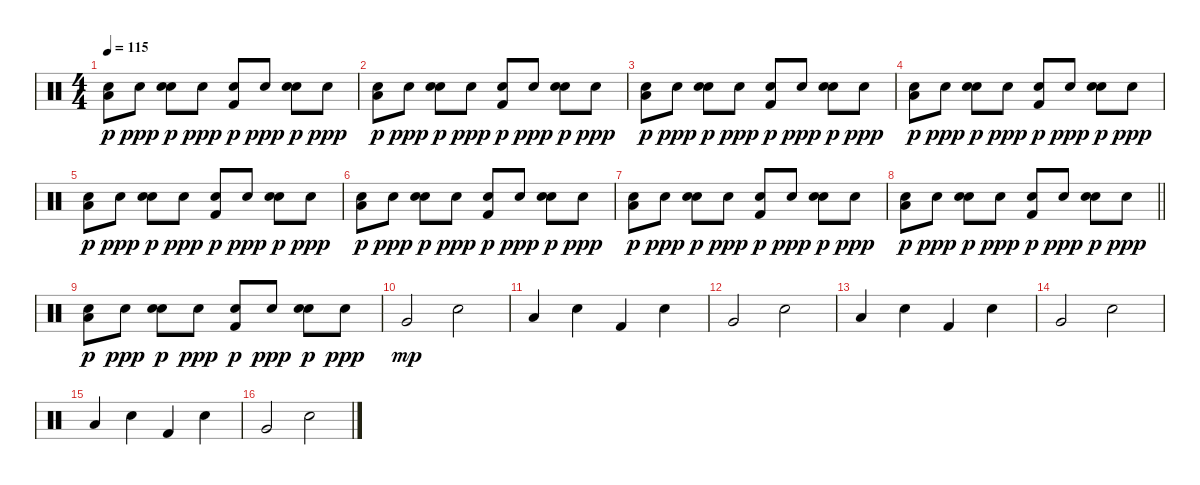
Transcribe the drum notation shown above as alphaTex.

\track "" {instrument percussion}
\staff {score}
\articulation defaults
\ts (4 4)
\tempo 115
\clef neutral
\ks c
("Snare (hit) 2" "Low Floor Tom (hit)").8{dy p} "Electric Snare (hit)".8{dy ppp} ("Hand Clap (hit)" "Snare (hit) 2").8{dy p} "Snare (hit) 2".8{dy ppp} ("Kick (hit) 2" "Snare (hit) 2").8{dy p} "Snare (hit) 2".8{dy ppp} ("Snare (hit) 2" "Hand Clap (hit)").8{dy p} "Snare (hit) 2".8{dy ppp} |
("Snare (hit) 2" "Low Floor Tom (hit)").8{dy p} "Electric Snare (hit)".8{dy ppp} ("Hand Clap (hit)" "Snare (hit) 2").8{dy p} "Snare (hit) 2".8{dy ppp} ("Kick (hit) 2" "Snare (hit) 2").8{dy p} "Snare (hit) 2".8{dy ppp} ("Snare (hit) 2" "Hand Clap (hit)").8{dy p} "Snare (hit) 2".8{dy ppp} |
("Snare (hit) 2" "Low Floor Tom (hit)").8{dy p} "Electric Snare (hit)".8{dy ppp} ("Hand Clap (hit)" "Snare (hit) 2").8{dy p} "Snare (hit) 2".8{dy ppp} ("Kick (hit) 2" "Snare (hit) 2").8{dy p} "Snare (hit) 2".8{dy ppp} ("Snare (hit) 2" "Hand Clap (hit)").8{dy p} "Snare (hit) 2".8{dy ppp} |
("Snare (hit) 2" "Low Floor Tom (hit)").8{dy p} "Electric Snare (hit)".8{dy ppp} ("Hand Clap (hit)" "Snare (hit) 2").8{dy p} "Snare (hit) 2".8{dy ppp} ("Kick (hit) 2" "Snare (hit) 2").8{dy p} "Snare (hit) 2".8{dy ppp} ("Snare (hit) 2" "Hand Clap (hit)").8{dy p} "Snare (hit) 2".8{dy ppp} |
("Snare (hit) 2" "Low Floor Tom (hit)").8{dy p} "Electric Snare (hit)".8{dy ppp} ("Hand Clap (hit)" "Snare (hit) 2").8{dy p} "Snare (hit) 2".8{dy ppp} ("Kick (hit) 2" "Snare (hit) 2").8{dy p} "Snare (hit) 2".8{dy ppp} ("Snare (hit) 2" "Hand Clap (hit)").8{dy p} "Snare (hit) 2".8{dy ppp} |
("Snare (hit) 2" "Low Floor Tom (hit)").8{dy p} "Electric Snare (hit)".8{dy ppp} ("Hand Clap (hit)" "Snare (hit) 2").8{dy p} "Snare (hit) 2".8{dy ppp} ("Kick (hit) 2" "Snare (hit) 2").8{dy p} "Snare (hit) 2".8{dy ppp} ("Snare (hit) 2" "Hand Clap (hit)").8{dy p} "Snare (hit) 2".8{dy ppp} |
("Snare (hit) 2" "Low Floor Tom (hit)").8{dy p} "Electric Snare (hit)".8{dy ppp} ("Hand Clap (hit)" "Snare (hit) 2").8{dy p} "Snare (hit) 2".8{dy ppp} ("Kick (hit) 2" "Snare (hit) 2").8{dy p} "Snare (hit) 2".8{dy ppp} ("Snare (hit) 2" "Hand Clap (hit)").8{dy p} "Snare (hit) 2".8{dy ppp} |
\barLineRight lightlight
("Snare (hit) 2" "Low Floor Tom (hit)").8{dy p} "Electric Snare (hit)".8{dy ppp} ("Hand Clap (hit)" "Snare (hit) 2").8{dy p} "Snare (hit) 2".8{dy ppp} ("Kick (hit) 2" "Snare (hit) 2").8{dy p} "Snare (hit) 2".8{dy ppp} ("Snare (hit) 2" "Hand Clap (hit)").8{dy p} "Snare (hit) 2".8{dy ppp} |
\section ("" "")
("Snare (hit) 2" "Low Floor Tom (hit)").8{dy p} "Electric Snare (hit)".8{dy ppp} ("Hand Clap (hit)" "Snare (hit) 2").8{dy p} "Snare (hit) 2".8{dy ppp} ("Kick (hit) 2" "Snare (hit) 2").8{dy p} "Snare (hit) 2".8{dy ppp} ("Snare (hit) 2" "Hand Clap (hit)").8{dy p} "Snare (hit) 2".8{dy ppp} |
"Very Low Tom (hit)".2{dy mp} "Electric Snare (hit)".2 |
"Low Floor Tom (hit)".4 "Snare (hit) 2".4 "Kick (hit) 2".4 "Snare (hit) 2".4 |
"Very Low Tom (hit)".2 "Electric Snare (hit)".2 |
"Low Floor Tom (hit)".4 "Snare (hit) 2".4 "Kick (hit) 2".4 "Snare (hit) 2".4 |
"Very Low Tom (hit)".2 "Electric Snare (hit)".2 |
"Low Floor Tom (hit)".4 "Snare (hit) 2".4 "Kick (hit) 2".4 "Snare (hit) 2".4 |
"Very Low Tom (hit)".2 "Electric Snare (hit)".2
